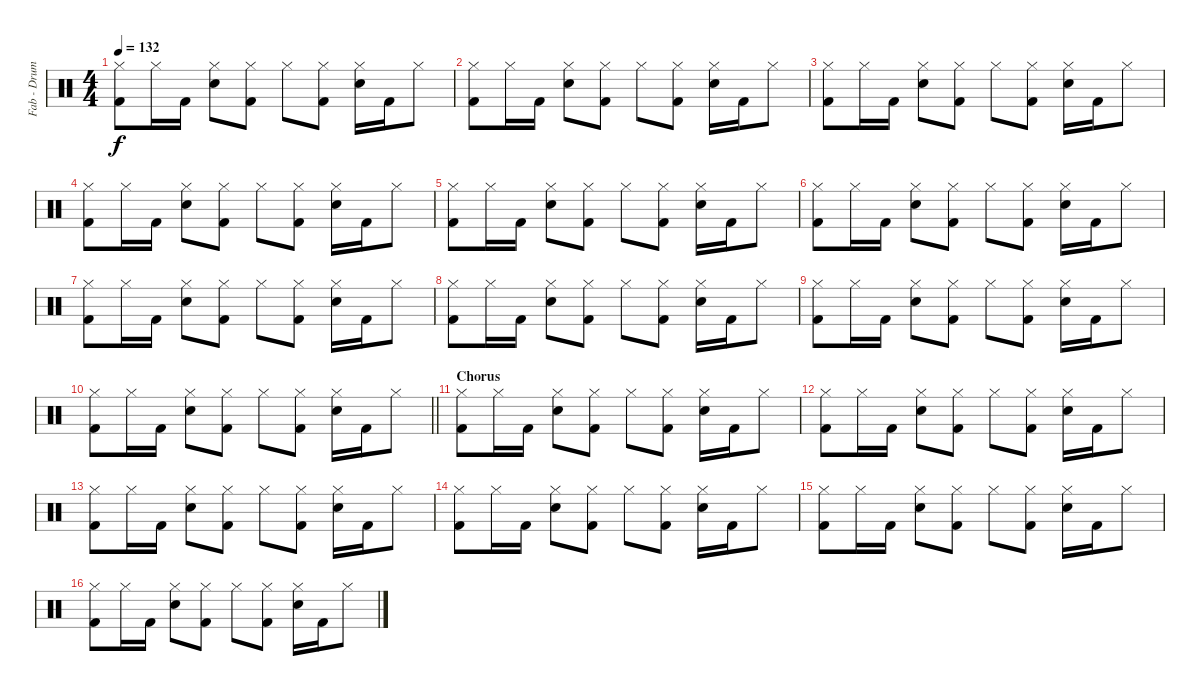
\track ("Fab - Drums MIDI" "Fab - Drum") {instrument percussion}
\staff {score}
\articulation defaults
\ts (4 4)
\tempo 132
\clef neutral
\ks c
("Hi-Hat (closed)" "Kick (hit) 2").8{dy f} "Hi-Hat (closed)".16 "Kick (hit) 2".16 ("Hi-Hat (closed)" "Snare (hit) 2").8 ("Hi-Hat (closed)" "Kick (hit) 2").8 "Hi-Hat (closed)".8 ("Hi-Hat (closed)" "Kick (hit) 2").8 ("Hi-Hat (closed)" "Snare (hit) 2").16 "Kick (hit) 2".16 "Hi-Hat (closed)".8 |
("Hi-Hat (closed)" "Kick (hit) 2").8 "Hi-Hat (closed)".16 "Kick (hit) 2".16 ("Hi-Hat (closed)" "Snare (hit) 2").8 ("Hi-Hat (closed)" "Kick (hit) 2").8 "Hi-Hat (closed)".8 ("Hi-Hat (closed)" "Kick (hit) 2").8 ("Hi-Hat (closed)" "Snare (hit) 2").16 "Kick (hit) 2".16 "Hi-Hat (closed)".8 |
("Hi-Hat (closed)" "Kick (hit) 2").8 "Hi-Hat (closed)".16 "Kick (hit) 2".16 ("Hi-Hat (closed)" "Snare (hit) 2").8 ("Hi-Hat (closed)" "Kick (hit) 2").8 "Hi-Hat (closed)".8 ("Hi-Hat (closed)" "Kick (hit) 2").8 ("Hi-Hat (closed)" "Snare (hit) 2").16 "Kick (hit) 2".16 "Hi-Hat (closed)".8 |
("Hi-Hat (closed)" "Kick (hit) 2").8 "Hi-Hat (closed)".16 "Kick (hit) 2".16 ("Hi-Hat (closed)" "Snare (hit) 2").8 ("Hi-Hat (closed)" "Kick (hit) 2").8 "Hi-Hat (closed)".8 ("Hi-Hat (closed)" "Kick (hit) 2").8 ("Hi-Hat (closed)" "Snare (hit) 2").16 "Kick (hit) 2".16 "Hi-Hat (closed)".8 |
("Hi-Hat (closed)" "Kick (hit) 2").8 "Hi-Hat (closed)".16 "Kick (hit) 2".16 ("Hi-Hat (closed)" "Snare (hit) 2").8 ("Hi-Hat (closed)" "Kick (hit) 2").8 "Hi-Hat (closed)".8 ("Hi-Hat (closed)" "Kick (hit) 2").8 ("Hi-Hat (closed)" "Snare (hit) 2").16 "Kick (hit) 2".16 "Hi-Hat (closed)".8 |
("Hi-Hat (closed)" "Kick (hit) 2").8 "Hi-Hat (closed)".16 "Kick (hit) 2".16 ("Hi-Hat (closed)" "Snare (hit) 2").8 ("Hi-Hat (closed)" "Kick (hit) 2").8 "Hi-Hat (closed)".8 ("Hi-Hat (closed)" "Kick (hit) 2").8 ("Hi-Hat (closed)" "Snare (hit) 2").16 "Kick (hit) 2".16 "Hi-Hat (closed)".8 |
("Hi-Hat (closed)" "Kick (hit) 2").8 "Hi-Hat (closed)".16 "Kick (hit) 2".16 ("Hi-Hat (closed)" "Snare (hit) 2").8 ("Hi-Hat (closed)" "Kick (hit) 2").8 "Hi-Hat (closed)".8 ("Hi-Hat (closed)" "Kick (hit) 2").8 ("Hi-Hat (closed)" "Snare (hit) 2").16 "Kick (hit) 2".16 "Hi-Hat (closed)".8 |
("Hi-Hat (closed)" "Kick (hit) 2").8 "Hi-Hat (closed)".16 "Kick (hit) 2".16 ("Hi-Hat (closed)" "Snare (hit) 2").8 ("Hi-Hat (closed)" "Kick (hit) 2").8 "Hi-Hat (closed)".8 ("Hi-Hat (closed)" "Kick (hit) 2").8 ("Hi-Hat (closed)" "Snare (hit) 2").16 "Kick (hit) 2".16 "Hi-Hat (closed)".8 |
("Hi-Hat (closed)" "Kick (hit) 2").8 "Hi-Hat (closed)".16 "Kick (hit) 2".16 ("Hi-Hat (closed)" "Snare (hit) 2").8 ("Hi-Hat (closed)" "Kick (hit) 2").8 "Hi-Hat (closed)".8 ("Hi-Hat (closed)" "Kick (hit) 2").8 ("Hi-Hat (closed)" "Snare (hit) 2").16 "Kick (hit) 2".16 "Hi-Hat (closed)".8 |
\barLineRight lightlight
("Hi-Hat (closed)" "Kick (hit) 2").8 "Hi-Hat (closed)".16 "Kick (hit) 2".16 ("Hi-Hat (closed)" "Snare (hit) 2").8 ("Hi-Hat (closed)" "Kick (hit) 2").8 "Hi-Hat (closed)".8 ("Hi-Hat (closed)" "Kick (hit) 2").8 ("Hi-Hat (closed)" "Snare (hit) 2").16 "Kick (hit) 2".16 "Hi-Hat (closed)".8 |
\section ("" "Chorus")
("Hi-Hat (closed)" "Kick (hit) 2").8 "Hi-Hat (closed)".16 "Kick (hit) 2".16 ("Hi-Hat (closed)" "Snare (hit) 2").8 ("Hi-Hat (closed)" "Kick (hit) 2").8 "Hi-Hat (closed)".8 ("Hi-Hat (closed)" "Kick (hit) 2").8 ("Hi-Hat (closed)" "Snare (hit) 2").16 "Kick (hit) 2".16 "Hi-Hat (closed)".8 |
("Hi-Hat (closed)" "Kick (hit) 2").8 "Hi-Hat (closed)".16 "Kick (hit) 2".16 ("Hi-Hat (closed)" "Snare (hit) 2").8 ("Hi-Hat (closed)" "Kick (hit) 2").8 "Hi-Hat (closed)".8 ("Hi-Hat (closed)" "Kick (hit) 2").8 ("Hi-Hat (closed)" "Snare (hit) 2").16 "Kick (hit) 2".16 "Hi-Hat (closed)".8 |
("Hi-Hat (closed)" "Kick (hit) 2").8 "Hi-Hat (closed)".16 "Kick (hit) 2".16 ("Hi-Hat (closed)" "Snare (hit) 2").8 ("Hi-Hat (closed)" "Kick (hit) 2").8 "Hi-Hat (closed)".8 ("Hi-Hat (closed)" "Kick (hit) 2").8 ("Hi-Hat (closed)" "Snare (hit) 2").16 "Kick (hit) 2".16 "Hi-Hat (closed)".8 |
("Hi-Hat (closed)" "Kick (hit) 2").8 "Hi-Hat (closed)".16 "Kick (hit) 2".16 ("Hi-Hat (closed)" "Snare (hit) 2").8 ("Hi-Hat (closed)" "Kick (hit) 2").8 "Hi-Hat (closed)".8 ("Hi-Hat (closed)" "Kick (hit) 2").8 ("Hi-Hat (closed)" "Snare (hit) 2").16 "Kick (hit) 2".16 "Hi-Hat (closed)".8 |
("Hi-Hat (closed)" "Kick (hit) 2").8 "Hi-Hat (closed)".16 "Kick (hit) 2".16 ("Hi-Hat (closed)" "Snare (hit) 2").8 ("Hi-Hat (closed)" "Kick (hit) 2").8 "Hi-Hat (closed)".8 ("Hi-Hat (closed)" "Kick (hit) 2").8 ("Hi-Hat (closed)" "Snare (hit) 2").16 "Kick (hit) 2".16 "Hi-Hat (closed)".8 |
("Hi-Hat (closed)" "Kick (hit) 2").8 "Hi-Hat (closed)".16 "Kick (hit) 2".16 ("Hi-Hat (closed)" "Snare (hit) 2").8 ("Hi-Hat (closed)" "Kick (hit) 2").8 "Hi-Hat (closed)".8 ("Hi-Hat (closed)" "Kick (hit) 2").8 ("Hi-Hat (closed)" "Snare (hit) 2").16 "Kick (hit) 2".16 "Hi-Hat (closed)".8
